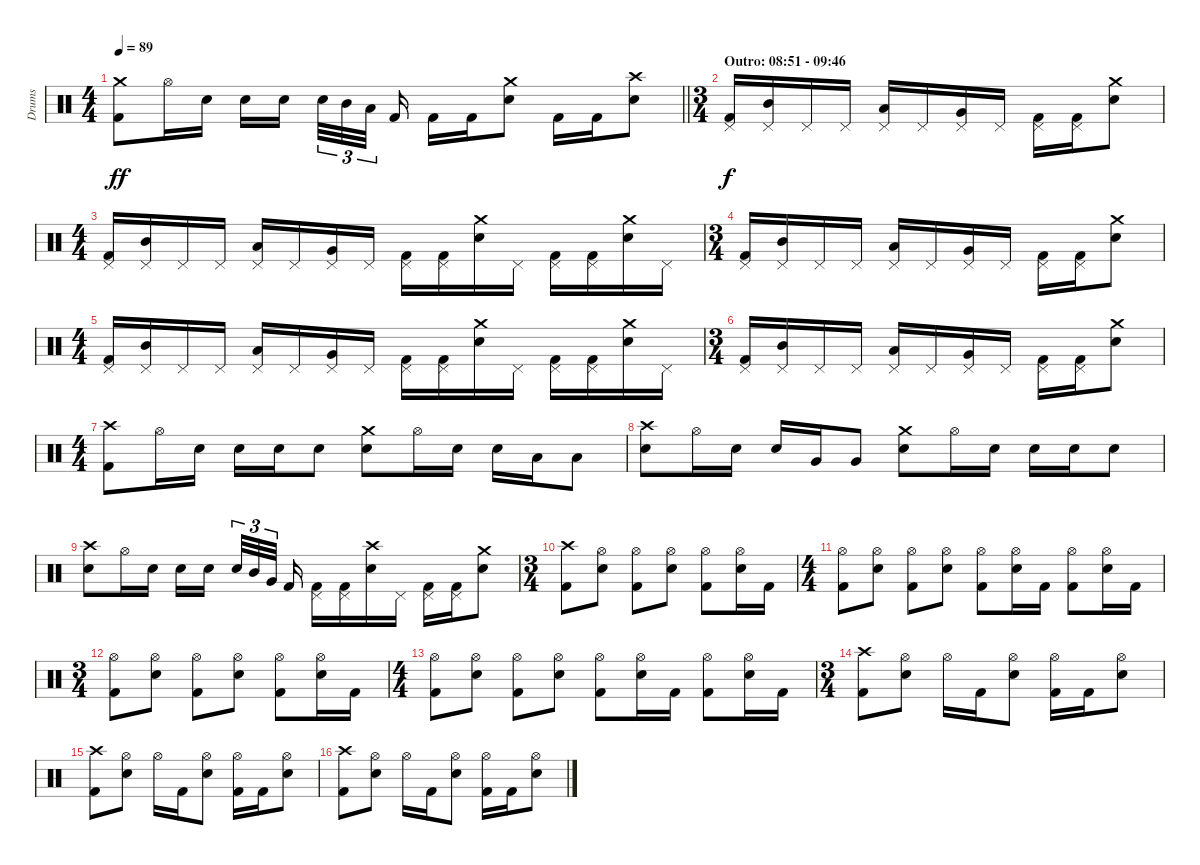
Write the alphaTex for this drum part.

\track ("Drums" "Drums") {instrument percussion}
\staff {score}
\articulation defaults
\ts (4 4)
\tempo 89
\clef neutral
\barLineRight lightlight
\ks c
("Crash medium (hit)" "Kick (hit) 2").8{dy ff} "Hi-Hat (open)".16 "Electric Snare (hit)".16 "Electric Snare (hit)".16 "Electric Snare (hit)".16{beam splitsecondary} "Electric Snare (hit)".32{tu (3 2)} "Mid Tom (hit)".32{tu (3 2)} "Low Tom (hit)".32{tu (3 2) beam splitsecondary} "Kick (hit) 2".16 "Kick (hit) 2".16 "Kick (hit) 2".16 ("Crash medium (hit)" "Electric Snare (hit)").8 "Kick (hit) 2".16 "Kick (hit) 2".16 ("Crash high (hit)" "Electric Snare (hit)").8 |
\ts (3 4)
\section ("" "Outro: 08:51 - 09:46")
("Pedal Hi-Hat (hit)" "Kick (hit) 2").16{dy f} ("Pedal Hi-Hat (hit)" "Mid Tom (hit)").16 "Pedal Hi-Hat (hit)".16 "Pedal Hi-Hat (hit)".16 ("Pedal Hi-Hat (hit)" "Low Tom (hit)").16 "Pedal Hi-Hat (hit)".16 ("Pedal Hi-Hat (hit)" "Very Low Tom (hit)").16 "Pedal Hi-Hat (hit)".16 ("Pedal Hi-Hat (hit)" "Kick (hit) 2").16 ("Pedal Hi-Hat (hit)" "Kick (hit) 2").16 ("Crash medium (hit)" "Electric Snare (hit)").8 |
\ts (4 4)
("Pedal Hi-Hat (hit)" "Kick (hit) 2").16 ("Pedal Hi-Hat (hit)" "Mid Tom (hit)").16 "Pedal Hi-Hat (hit)".16 "Pedal Hi-Hat (hit)".16 ("Pedal Hi-Hat (hit)" "Low Tom (hit)").16 "Pedal Hi-Hat (hit)".16 ("Pedal Hi-Hat (hit)" "Very Low Tom (hit)").16 "Pedal Hi-Hat (hit)".16 ("Pedal Hi-Hat (hit)" "Kick (hit) 2").16 ("Pedal Hi-Hat (hit)" "Kick (hit) 2").16 ("Crash medium (hit)" "Electric Snare (hit)").16 "Pedal Hi-Hat (hit)".16 ("Pedal Hi-Hat (hit)" "Kick (hit) 2").16 ("Pedal Hi-Hat (hit)" "Kick (hit) 2").16 ("Crash medium (hit)" "Electric Snare (hit)").16 "Pedal Hi-Hat (hit)".16 |
\ts (3 4)
("Pedal Hi-Hat (hit)" "Kick (hit) 2").16 ("Pedal Hi-Hat (hit)" "Mid Tom (hit)").16 "Pedal Hi-Hat (hit)".16 "Pedal Hi-Hat (hit)".16 ("Pedal Hi-Hat (hit)" "Low Tom (hit)").16 "Pedal Hi-Hat (hit)".16 ("Pedal Hi-Hat (hit)" "Very Low Tom (hit)").16 "Pedal Hi-Hat (hit)".16 ("Pedal Hi-Hat (hit)" "Kick (hit) 2").16 ("Pedal Hi-Hat (hit)" "Kick (hit) 2").16 ("Crash medium (hit)" "Electric Snare (hit)").8 |
\ts (4 4)
("Pedal Hi-Hat (hit)" "Kick (hit) 2").16 ("Pedal Hi-Hat (hit)" "Mid Tom (hit)").16 "Pedal Hi-Hat (hit)".16 "Pedal Hi-Hat (hit)".16 ("Pedal Hi-Hat (hit)" "Low Tom (hit)").16 "Pedal Hi-Hat (hit)".16 ("Pedal Hi-Hat (hit)" "Very Low Tom (hit)").16 "Pedal Hi-Hat (hit)".16 ("Pedal Hi-Hat (hit)" "Kick (hit) 2").16 ("Pedal Hi-Hat (hit)" "Kick (hit) 2").16 ("Crash medium (hit)" "Electric Snare (hit)").16 "Pedal Hi-Hat (hit)".16 ("Pedal Hi-Hat (hit)" "Kick (hit) 2").16 ("Pedal Hi-Hat (hit)" "Kick (hit) 2").16 ("Crash medium (hit)" "Electric Snare (hit)").16 "Pedal Hi-Hat (hit)".16 |
\ts (3 4)
("Pedal Hi-Hat (hit)" "Kick (hit) 2").16 ("Pedal Hi-Hat (hit)" "Mid Tom (hit)").16 "Pedal Hi-Hat (hit)".16 "Pedal Hi-Hat (hit)".16 ("Pedal Hi-Hat (hit)" "Low Tom (hit)").16 "Pedal Hi-Hat (hit)".16 ("Pedal Hi-Hat (hit)" "Very Low Tom (hit)").16 "Pedal Hi-Hat (hit)".16 ("Pedal Hi-Hat (hit)" "Kick (hit) 2").16 ("Pedal Hi-Hat (hit)" "Kick (hit) 2").16 ("Crash medium (hit)" "Electric Snare (hit)").8 |
\ts (4 4)
("Crash high (hit)" "Kick (hit) 2").8 "Hi-Hat (open)".16 "Electric Snare (hit)".16 "Electric Snare (hit)".16 "Electric Snare (hit)".16 "Electric Snare (hit)".8 ("Crash medium (hit)" "Electric Snare (hit)").8 "Hi-Hat (open)".16 "Electric Snare (hit)".16 "Electric Snare (hit)".16 "Low Tom (hit)".16 "Low Tom (hit)".8 |
("Crash high (hit)" "Electric Snare (hit)").8 "Hi-Hat (open)".16 "Electric Snare (hit)".16 "Electric Snare (hit)".16 "Very Low Tom (hit)".16 "Very Low Tom (hit)".8 ("Crash medium (hit)" "Electric Snare (hit)").8 "Hi-Hat (open)".16 "Electric Snare (hit)".16 "Electric Snare (hit)".16 "Electric Snare (hit)".16 "Electric Snare (hit)".8 |
("Crash high (hit)" "Electric Snare (hit)").8 "Hi-Hat (open)".16 "Electric Snare (hit)".16 "Electric Snare (hit)".16 "Electric Snare (hit)".16{beam splitsecondary} "Electric Snare (hit)".32{tu (3 2)} "Mid Tom (hit)".32{tu (3 2)} "Very Low Tom (hit)".32{tu (3 2) beam splitsecondary} "Kick (hit) 2".16 ("Pedal Hi-Hat (hit)" "Kick (hit) 2").16 ("Pedal Hi-Hat (hit)" "Kick (hit) 2").16 ("Crash high (hit)" "Electric Snare (hit)").16 "Pedal Hi-Hat (hit)".16 ("Pedal Hi-Hat (hit)" "Kick (hit) 2").16 ("Pedal Hi-Hat (hit)" "Kick (hit) 2").16 ("Crash medium (hit)" "Electric Snare (hit)").8 |
\ts (3 4)
("Crash high (hit)" "Kick (hit) 2").8 ("Hi-Hat (open)" "Electric Snare (hit)").8 ("Hi-Hat (open)" "Kick (hit) 2").8 ("Hi-Hat (open)" "Electric Snare (hit)").8 ("Hi-Hat (open)" "Kick (hit) 2").8 ("Hi-Hat (open)" "Electric Snare (hit)").16 "Kick (hit) 2".16 |
\ts (4 4)
("Hi-Hat (open)" "Kick (hit) 2").8 ("Hi-Hat (open)" "Electric Snare (hit)").8 ("Hi-Hat (open)" "Kick (hit) 2").8 ("Hi-Hat (open)" "Electric Snare (hit)").8 ("Hi-Hat (open)" "Kick (hit) 2").8 ("Hi-Hat (open)" "Electric Snare (hit)").16 "Kick (hit) 2".16 ("Hi-Hat (open)" "Kick (hit) 2").8 ("Hi-Hat (open)" "Electric Snare (hit)").16 "Kick (hit) 2".16 |
\ts (3 4)
("Hi-Hat (open)" "Kick (hit) 2").8 ("Hi-Hat (open)" "Electric Snare (hit)").8 ("Hi-Hat (open)" "Kick (hit) 2").8 ("Hi-Hat (open)" "Electric Snare (hit)").8 ("Hi-Hat (open)" "Kick (hit) 2").8 ("Hi-Hat (open)" "Electric Snare (hit)").16 "Kick (hit) 2".16 |
\ts (4 4)
("Hi-Hat (open)" "Kick (hit) 2").8 ("Hi-Hat (open)" "Electric Snare (hit)").8 ("Hi-Hat (open)" "Kick (hit) 2").8 ("Hi-Hat (open)" "Electric Snare (hit)").8 ("Hi-Hat (open)" "Kick (hit) 2").8 ("Hi-Hat (open)" "Electric Snare (hit)").16 "Kick (hit) 2".16 ("Hi-Hat (open)" "Kick (hit) 2").8 ("Hi-Hat (open)" "Electric Snare (hit)").16 "Kick (hit) 2".16 |
\ts (3 4)
("Crash high (hit)" "Kick (hit) 2").8 ("Hi-Hat (open)" "Electric Snare (hit)").8 "Hi-Hat (open)".16 "Kick (hit) 2".16 ("Hi-Hat (open)" "Electric Snare (hit)").8 ("Hi-Hat (open)" "Kick (hit) 2").16 "Kick (hit) 2".16 ("Hi-Hat (open)" "Electric Snare (hit)").8 |
("Crash high (hit)" "Kick (hit) 2").8 ("Hi-Hat (open)" "Electric Snare (hit)").8 "Hi-Hat (open)".16 "Kick (hit) 2".16 ("Hi-Hat (open)" "Electric Snare (hit)").8 ("Hi-Hat (open)" "Kick (hit) 2").16 "Kick (hit) 2".16 ("Hi-Hat (open)" "Electric Snare (hit)").8 |
("Crash high (hit)" "Kick (hit) 2").8 ("Hi-Hat (open)" "Electric Snare (hit)").8 "Hi-Hat (open)".16 "Kick (hit) 2".16 ("Hi-Hat (open)" "Electric Snare (hit)").8 ("Hi-Hat (open)" "Kick (hit) 2").16 "Kick (hit) 2".16 ("Hi-Hat (open)" "Electric Snare (hit)").8
